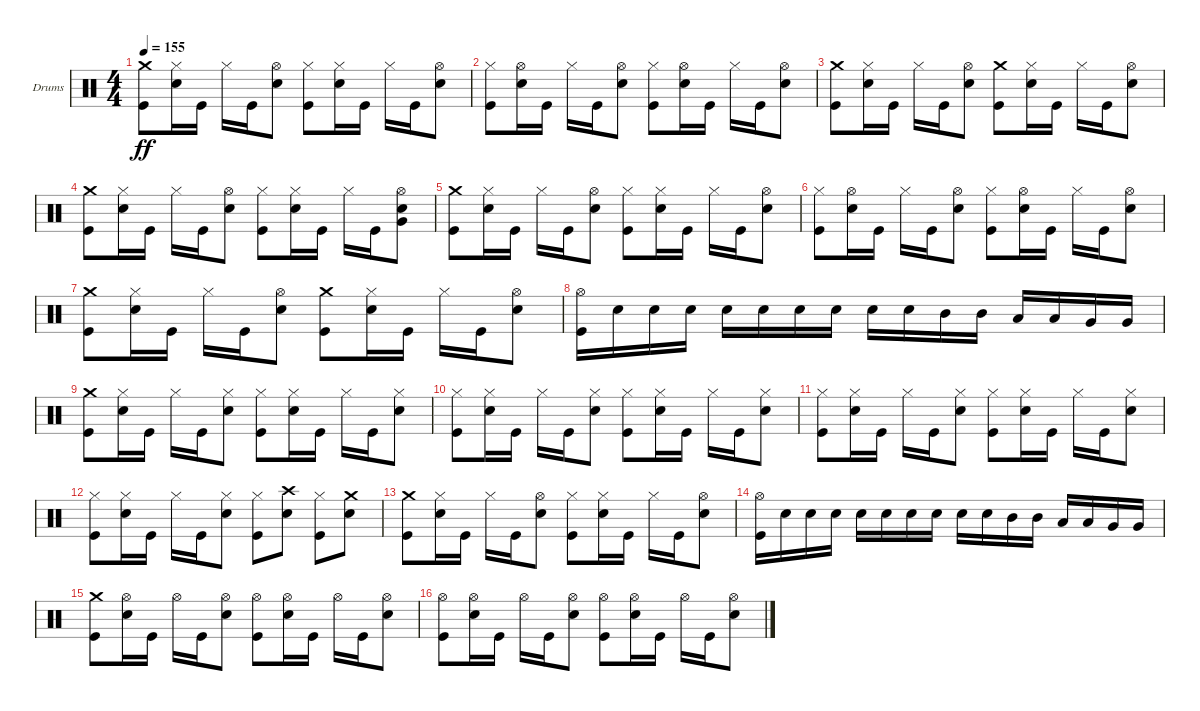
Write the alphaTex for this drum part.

\defaultSystemsLayout 4
\bracketExtendMode groupsimilarinstruments
\firstSystemTrackNameOrientation horizontal
\otherSystemsTrackNameOrientation horizontal
\track ("Drums - Brandon Barnes" "Drums") {instrument percussion}
\staff {score}
\articulation defaults
\ts (4 4)
\tempo 155
\clef neutral
\scale
0.391473
\ks c
("Kick (hit)" "Crash medium (hit)").8{dy ff} ("Snare (hit) 2" "Hi-Hat (closed)").16 "Kick (hit)".16 "Hi-Hat (closed)".16 "Kick (hit)".16 ("Snare (hit) 2" "Hi-Hat (open)").8 ("Kick (hit)" "Hi-Hat (closed)").8 ("Snare (hit) 2" "Hi-Hat (closed)").16 "Kick (hit)".16 "Hi-Hat (closed)".16 "Kick (hit)".16 ("Snare (hit) 2" "Hi-Hat (open)").8 |
\scale
0.217054 ("Kick (hit)" "Hi-Hat (closed)").8 ("Snare (hit) 2" "Hi-Hat (open)").16 "Kick (hit)".16 "Hi-Hat (closed)".16 "Kick (hit)".16 ("Snare (hit) 2" "Hi-Hat (open)").8 ("Kick (hit)" "Hi-Hat (closed)").8 ("Snare (hit) 2" "Hi-Hat (open)").16 "Kick (hit)".16 "Hi-Hat (closed)".16 "Kick (hit)".16 ("Snare (hit) 2" "Hi-Hat (open)").8 |
\scale
0.333333 ("Kick (hit)" "Crash medium (hit)").8 ("Snare (hit) 2" "Hi-Hat (closed)").16 "Kick (hit)".16 "Hi-Hat (closed)".16 "Kick (hit)".16 ("Snare (hit) 2" "Hi-Hat (open)").8 ("Kick (hit)" "Crash medium (hit)").8 ("Snare (hit) 2" "Hi-Hat (closed)").16 "Kick (hit)".16 "Hi-Hat (closed)".16 "Kick (hit)".16 ("Snare (hit) 2" "Hi-Hat (open)").8 |
\scale
0.333333 ("Kick (hit)" "Crash medium (hit)").8 ("Snare (hit) 2" "Hi-Hat (closed)").16 "Kick (hit)".16 "Hi-Hat (closed)".16 "Kick (hit)".16 ("Snare (hit) 2" "Hi-Hat (open)").8 ("Kick (hit)" "Hi-Hat (closed)").8 ("Snare (hit) 2" "Hi-Hat (closed)").16 "Kick (hit)".16 "Hi-Hat (closed)".16 "Kick (hit)".16 ("Snare (hit) 2" "Hi-Hat (open)" "Very Low Tom (hit)").8 |
\scale
0.333333 ("Kick (hit)" "Crash medium (hit)").8 ("Snare (hit) 2" "Hi-Hat (closed)").16 "Kick (hit)".16 "Hi-Hat (closed)".16 "Kick (hit)".16 ("Snare (hit) 2" "Hi-Hat (open)").8 ("Kick (hit)" "Hi-Hat (closed)").8 ("Snare (hit) 2" "Hi-Hat (closed)").16 "Kick (hit)".16 "Hi-Hat (closed)".16 "Kick (hit)".16 ("Snare (hit) 2" "Hi-Hat (open)").8 |
\scale
0.333333 ("Kick (hit)" "Hi-Hat (closed)").8 ("Snare (hit) 2" "Hi-Hat (open)").16 "Kick (hit)".16 "Hi-Hat (closed)".16 "Kick (hit)".16 ("Snare (hit) 2" "Hi-Hat (open)").8 ("Kick (hit)" "Hi-Hat (closed)").8 ("Snare (hit) 2" "Hi-Hat (open)").16 "Kick (hit)".16 "Hi-Hat (closed)".16 "Kick (hit)".16 ("Snare (hit) 2" "Hi-Hat (open)").8 |
\scale
0.333333 ("Kick (hit)" "Crash medium (hit)").8 ("Snare (hit) 2" "Hi-Hat (closed)").16 "Kick (hit)".16 "Hi-Hat (closed)".16 "Kick (hit)".16 ("Snare (hit) 2" "Hi-Hat (open)").8 ("Kick (hit)" "Crash medium (hit)").8 ("Snare (hit) 2" "Hi-Hat (closed)").16 "Kick (hit)".16 "Hi-Hat (closed)".16 "Kick (hit)".16 ("Snare (hit) 2" "Hi-Hat (open)").8 |
\scale
0.333333 ("Kick (hit)" "Hi-Hat (open)").16 "Snare (hit) 2".16 "Snare (hit) 2".16 "Snare (hit) 2".16 "Snare (hit) 2".16 "Snare (hit) 2".16 "Snare (hit) 2".16 "Snare (hit) 2".16 "Snare (hit) 2".16 "Snare (hit) 2".16 "Mid Tom (hit)".16 "Mid Tom (hit)".16 "Low Tom (hit)".16 "Low Tom (hit)".16 "Very Low Tom (hit)".16 "Very Low Tom (hit)".16 |
\scale
0.333333 ("Kick (hit)" "Crash medium (hit)").8 ("Snare (hit) 2" "Hi-Hat (closed)").16 "Kick (hit)".16 "Hi-Hat (closed)".16 "Kick (hit)".16 ("Snare (hit) 2" "Hi-Hat (closed)").8 ("Kick (hit)" "Hi-Hat (closed)").8 ("Snare (hit) 2" "Hi-Hat (closed)").16 "Kick (hit)".16 "Hi-Hat (closed)".16 "Kick (hit)".16 ("Snare (hit) 2" "Hi-Hat (closed)").8 |
\scale
0.333333 ("Kick (hit)" "Hi-Hat (closed)").8 ("Snare (hit) 2" "Hi-Hat (closed)").16 "Kick (hit)".16 "Hi-Hat (closed)".16 "Kick (hit)".16 ("Snare (hit) 2" "Hi-Hat (closed)").8 ("Kick (hit)" "Hi-Hat (closed)").8 ("Snare (hit) 2" "Hi-Hat (closed)").16 "Kick (hit)".16 "Hi-Hat (closed)".16 "Kick (hit)".16 ("Snare (hit) 2" "Hi-Hat (closed)").8 |
\scale
0.333333 ("Kick (hit)" "Hi-Hat (closed)").8 ("Snare (hit) 2" "Hi-Hat (closed)").16 "Kick (hit)".16 "Hi-Hat (closed)".16 "Kick (hit)".16 ("Snare (hit) 2" "Hi-Hat (closed)").8 ("Kick (hit)" "Hi-Hat (closed)").8 ("Snare (hit) 2" "Hi-Hat (closed)").16 "Kick (hit)".16 "Hi-Hat (closed)".16 "Kick (hit)".16 ("Snare (hit) 2" "Hi-Hat (closed)").8 |
\scale
0.333333 ("Kick (hit)" "Hi-Hat (closed)").8 ("Snare (hit) 2" "Hi-Hat (closed)").16 "Kick (hit)".16 "Hi-Hat (closed)".16 "Kick (hit)".16 ("Snare (hit) 2" "Hi-Hat (closed)").8 ("Kick (hit)" "Hi-Hat (closed)").8 ("Snare (hit) 2" "Crash high (hit)").8 ("Kick (hit)" "Hi-Hat (closed)").8 ("Snare (hit) 2" "Crash medium (hit)").8 |
\scale
0.333333 ("Kick (hit)" "Crash medium (hit)").8 ("Snare (hit) 2" "Hi-Hat (closed)").16 "Kick (hit)".16 "Hi-Hat (closed)".16 "Kick (hit)".16 ("Snare (hit) 2" "Hi-Hat (open)").8 ("Kick (hit)" "Hi-Hat (closed)").8 ("Snare (hit) 2" "Hi-Hat (closed)").16 "Kick (hit)".16 "Hi-Hat (closed)".16 "Kick (hit)".16 ("Snare (hit) 2" "Hi-Hat (open)").8 |
\scale
0.333333 ("Kick (hit)" "Hi-Hat (open)").16 "Snare (hit) 2".16 "Snare (hit) 2".16 "Snare (hit) 2".16 "Snare (hit) 2".16 "Snare (hit) 2".16 "Snare (hit) 2".16 "Snare (hit) 2".16 "Snare (hit) 2".16 "Snare (hit) 2".16 "Mid Tom (hit)".16 "Mid Tom (hit)".16 "Low Tom (hit)".16 "Low Tom (hit)".16 "Very Low Tom (hit)".16 "Very Low Tom (hit)".16 |
\scale
0.333333 ("Kick (hit)" "Crash medium (hit)").8 ("Snare (hit) 2" "Hi-Hat (open)").16 "Kick (hit)".16 "Hi-Hat (open)".16 "Kick (hit)".16 ("Snare (hit) 2" "Hi-Hat (open)").8 ("Kick (hit)" "Hi-Hat (open)").8 ("Snare (hit) 2" "Hi-Hat (open)").16 "Kick (hit)".16 "Hi-Hat (open)".16 "Kick (hit)".16 ("Snare (hit) 2" "Hi-Hat (open)").8 |
\scale
0.333333 ("Kick (hit)" "Hi-Hat (open)").8 ("Snare (hit) 2" "Hi-Hat (open)").16 "Kick (hit)".16 "Hi-Hat (open)".16 "Kick (hit)".16 ("Snare (hit) 2" "Hi-Hat (open)").8 ("Kick (hit)" "Hi-Hat (open)").8 ("Snare (hit) 2" "Hi-Hat (open)").16 "Kick (hit)".16 "Hi-Hat (open)".16 "Kick (hit)".16 ("Snare (hit) 2" "Hi-Hat (open)").8
